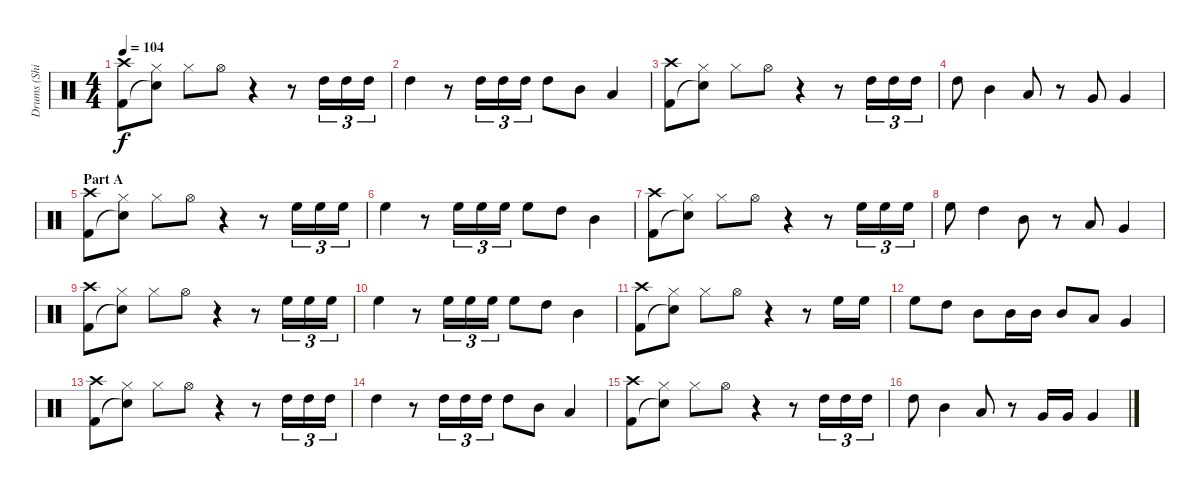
\track ("Drums (Shinya)" "Drums (Shi") {instrument percussion}
\staff {score}
\articulation defaults
\ts (4 4)
\tempo 104
\clef neutral
\ks c
("Crash high (hit)" "Kick (hit) 2").8{dy f} ("Hi-Hat (closed)" "Snare (hit)"{t}).8 "Hi-Hat (closed)".8 "Hi-Hat (open)".8 r.4 r.8 "High Tom (hit)".16{tu (3 2)} "High Tom (hit)".16{tu (3 2)} "High Tom (hit)".16{tu (3 2)} |
"High Tom (hit)".4 r.8 "High Tom (hit)".16{tu (3 2)} "High Tom (hit)".16{tu (3 2)} "High Tom (hit)".16{tu (3 2)} "High Tom (hit)".8 "Mid Tom (hit)".8 "Low Tom (hit)".4 |
("Crash high (hit)" "Kick (hit) 2").8 ("Hi-Hat (closed)" "Snare (hit)"{t}).8 "Hi-Hat (closed)".8 "Hi-Hat (open)".8 r.4 r.8 "High Tom (hit)".16{tu (3 2)} "High Tom (hit)".16{tu (3 2)} "High Tom (hit)".16{tu (3 2)} |
"High Tom (hit)".8 "Mid Tom (hit)".4 "Low Tom (hit)".8 r.8 "Very Low Tom (hit)".8 "Very Low Tom (hit)".4 |
\section ("" "Part A")
("Crash high (hit)" "Kick (hit) 2").8 ("Hi-Hat (closed)" "Snare (hit)"{t}).8 "Hi-Hat (closed)".8 "Hi-Hat (open)".8 r.4 r.8 "High Floor Tom (hit)".16{tu (3 2)} "High Floor Tom (hit)".16{tu (3 2)} "High Floor Tom (hit)".16{tu (3 2)} |
"High Floor Tom (hit)".4 r.8 "High Floor Tom (hit)".16{tu (3 2)} "High Floor Tom (hit)".16{tu (3 2)} "High Floor Tom (hit)".16{tu (3 2)} "High Floor Tom (hit)".8 "High Tom (hit)".8 "Mid Tom (hit)".4 |
("Crash high (hit)" "Kick (hit) 2").8 ("Hi-Hat (closed)" "Snare (hit)"{t}).8 "Hi-Hat (closed)".8 "Hi-Hat (open)".8 r.4 r.8 "High Floor Tom (hit)".16{tu (3 2)} "High Floor Tom (hit)".16{tu (3 2)} "High Floor Tom (hit)".16{tu (3 2)} |
"High Floor Tom (hit)".8 "High Tom (hit)".4 "Mid Tom (hit)".8 r.8 "Low Tom (hit)".8 "Very Low Tom (hit)".4 |
("Crash high (hit)" "Kick (hit) 2").8 ("Hi-Hat (closed)" "Snare (hit)"{t}).8 "Hi-Hat (closed)".8 "Hi-Hat (open)".8 r.4 r.8 "High Floor Tom (hit)".16{tu (3 2)} "High Floor Tom (hit)".16{tu (3 2)} "High Floor Tom (hit)".16{tu (3 2)} |
"High Floor Tom (hit)".4 r.8 "High Floor Tom (hit)".16{tu (3 2)} "High Floor Tom (hit)".16{tu (3 2)} "High Floor Tom (hit)".16{tu (3 2)} "High Floor Tom (hit)".8 "High Tom (hit)".8 "Mid Tom (hit)".4 |
("Crash high (hit)" "Kick (hit) 2").8 ("Hi-Hat (closed)" "Snare (hit)"{t}).8 "Hi-Hat (closed)".8 "Hi-Hat (open)".8 r.4 r.8 "High Floor Tom (hit)".16 "High Floor Tom (hit)".16 |
"High Floor Tom (hit)".8 "High Tom (hit)".8 "Mid Tom (hit)".8 "Mid Tom (hit)".16 "Mid Tom (hit)".16 "Mid Tom (hit)".8 "Low Tom (hit)".8 "Very Low Tom (hit)".4 |
("Crash high (hit)" "Kick (hit) 2").8 ("Hi-Hat (closed)" "Snare (hit)"{t}).8 "Hi-Hat (closed)".8 "Hi-Hat (open)".8 r.4 r.8 "High Tom (hit)".16{tu (3 2)} "High Tom (hit)".16{tu (3 2)} "High Tom (hit)".16{tu (3 2)} |
"High Tom (hit)".4 r.8 "High Tom (hit)".16{tu (3 2)} "High Tom (hit)".16{tu (3 2)} "High Tom (hit)".16{tu (3 2)} "High Tom (hit)".8 "Mid Tom (hit)".8 "Low Tom (hit)".4 |
("Crash high (hit)" "Kick (hit) 2").8 ("Hi-Hat (closed)" "Snare (hit)"{t}).8 "Hi-Hat (closed)".8 "Hi-Hat (open)".8 r.4 r.8 "High Tom (hit)".16{tu (3 2)} "High Tom (hit)".16{tu (3 2)} "High Tom (hit)".16{tu (3 2)} |
"High Tom (hit)".8 "Mid Tom (hit)".4 "Low Tom (hit)".8 r.8 "Very Low Tom (hit)".16 "Very Low Tom (hit)".16 "Very Low Tom (hit)".4
